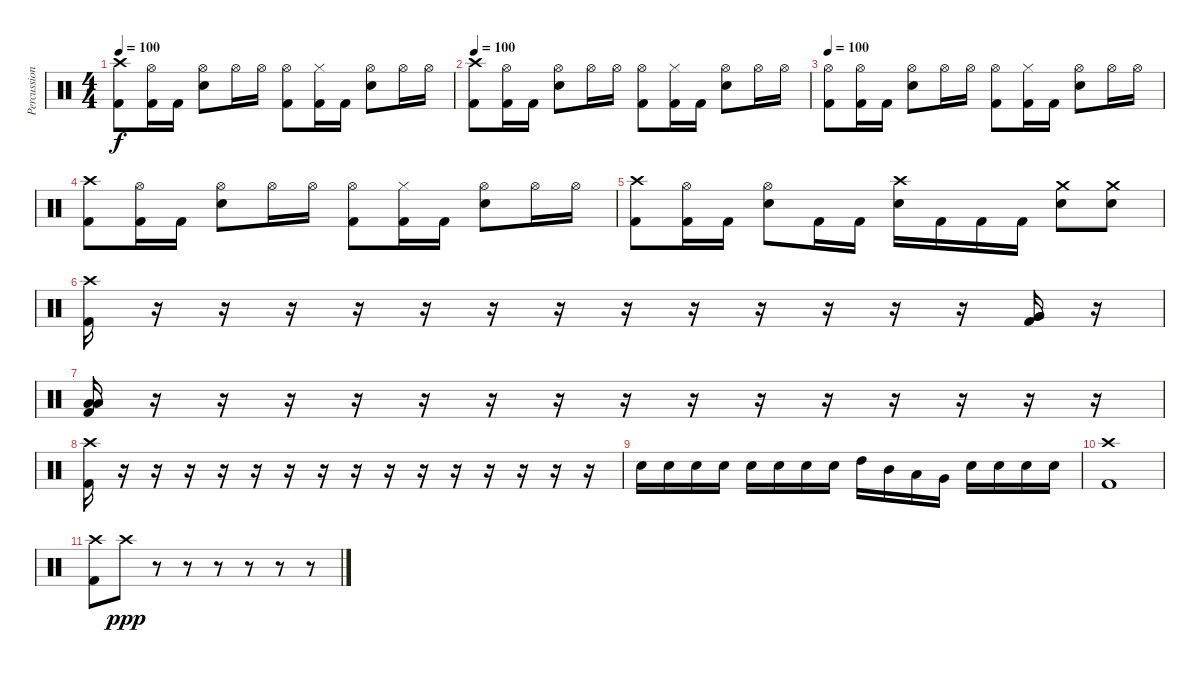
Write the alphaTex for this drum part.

\track ("Percussion" "Percussion") {instrument percussion}
\staff {score}
\articulation defaults
\ts (4 4)
\tempo 100
\clef neutral
\ks c
("Crash high (hit)" "Kick (hit) 2").8{dy f} ("Hi-Hat (open)" "Kick (hit) 2").16 "Kick (hit) 2".16 ("Hi-Hat (open)" "Snare (hit) 2").8 "Hi-Hat (open)".16 "Hi-Hat (open)".16 ("Hi-Hat (open)" "Kick (hit) 2").8 ("Hi-Hat (closed)" "Kick (hit) 2").16 "Kick (hit) 2".16 ("Hi-Hat (open)" "Snare (hit) 2").8 "Hi-Hat (open)".16 "Hi-Hat (open)".16 |
\tempo 100
("Crash high (hit)" "Kick (hit) 2").8 ("Hi-Hat (open)" "Kick (hit) 2").16 "Kick (hit) 2".16 ("Hi-Hat (open)" "Snare (hit) 2").8 "Hi-Hat (open)".16 "Hi-Hat (open)".16 ("Hi-Hat (open)" "Kick (hit) 2").8 ("Hi-Hat (closed)" "Kick (hit) 2").16 "Kick (hit) 2".16 ("Hi-Hat (open)" "Snare (hit) 2").8 "Hi-Hat (open)".16 "Hi-Hat (open)".16 |
\tempo 100
("Hi-Hat (open)" "Kick (hit) 2").8 ("Hi-Hat (open)" "Kick (hit) 2").16 "Kick (hit) 2".16 ("Hi-Hat (open)" "Snare (hit) 2").8 "Hi-Hat (open)".16 "Hi-Hat (open)".16 ("Hi-Hat (open)" "Kick (hit) 2").8 ("Hi-Hat (closed)" "Kick (hit) 2").16 "Kick (hit) 2".16 ("Hi-Hat (open)" "Snare (hit) 2").8 "Hi-Hat (open)".16 "Hi-Hat (open)".16 |
("Crash high (hit)" "Kick (hit) 2").8 ("Hi-Hat (open)" "Kick (hit) 2").16 "Kick (hit) 2".16 ("Hi-Hat (open)" "Snare (hit) 2").8 "Hi-Hat (open)".16 "Hi-Hat (open)".16 ("Hi-Hat (open)" "Kick (hit) 2").8 ("Hi-Hat (closed)" "Kick (hit) 2").16 "Kick (hit) 2".16 ("Hi-Hat (open)" "Snare (hit) 2").8 "Hi-Hat (open)".16 "Hi-Hat (open)".16 |
("Crash high (hit)" "Kick (hit) 2").8 ("Hi-Hat (open)" "Kick (hit) 2").16 "Kick (hit) 2".16 ("Hi-Hat (open)" "Snare (hit) 2").8 "Kick (hit) 2".16 "Kick (hit) 2".16 ("Crash high (hit)" "Snare (hit) 2").16 "Kick (hit) 2".16 "Kick (hit) 2".16 "Kick (hit) 2".16 ("Crash medium (hit)" "Snare (hit) 2").8 ("Crash medium (hit)" "Snare (hit) 2").8 |
("Crash high (hit)" "Kick (hit) 2").16 r.16 r.16 r.16 r.16 r.16 r.16 r.16 r.16 r.16 r.16 r.16 r.16 r.16 ("Very Low Tom (hit)" "Very Low Tom (hit)" "Kick (hit) 2").16 r.16 |
("Low Floor Tom (hit)" "Low Floor Tom (hit)" "Kick (hit) 2").16 r.16 r.16 r.16 r.16 r.16 r.16 r.16 r.16 r.16 r.16 r.16 r.16 r.16 r.16 r.16 |
("Crash high (hit)" "Kick (hit) 2").16 r.16 r.16 r.16 r.16 r.16 r.16 r.16 r.16 r.16 r.16 r.16 r.16 r.16 r.16 r.16 |
"Snare (hit) 2".16 "Snare (hit) 2".16 "Snare (hit) 2".16 "Snare (hit) 2".16 "Snare (hit) 2".16 "Snare (hit) 2".16 "Snare (hit) 2".16 "Snare (hit) 2".16 "High Tom (hit)".16 "Mid Tom (hit)".16 "Low Tom (hit)".16 "Very Low Tom (hit)".16 "Snare (hit) 2".16 "Snare (hit) 2".16 "Snare (hit) 2".16 "Snare (hit) 2".16 |
("Crash high (hit)" "Kick (hit) 2").1 |
("Crash high (hit)" "Kick (hit) 2").8 "Crash high (hit)".8{dy ppp} r.8 r.8 r.8 r.8 r.8 r.8
